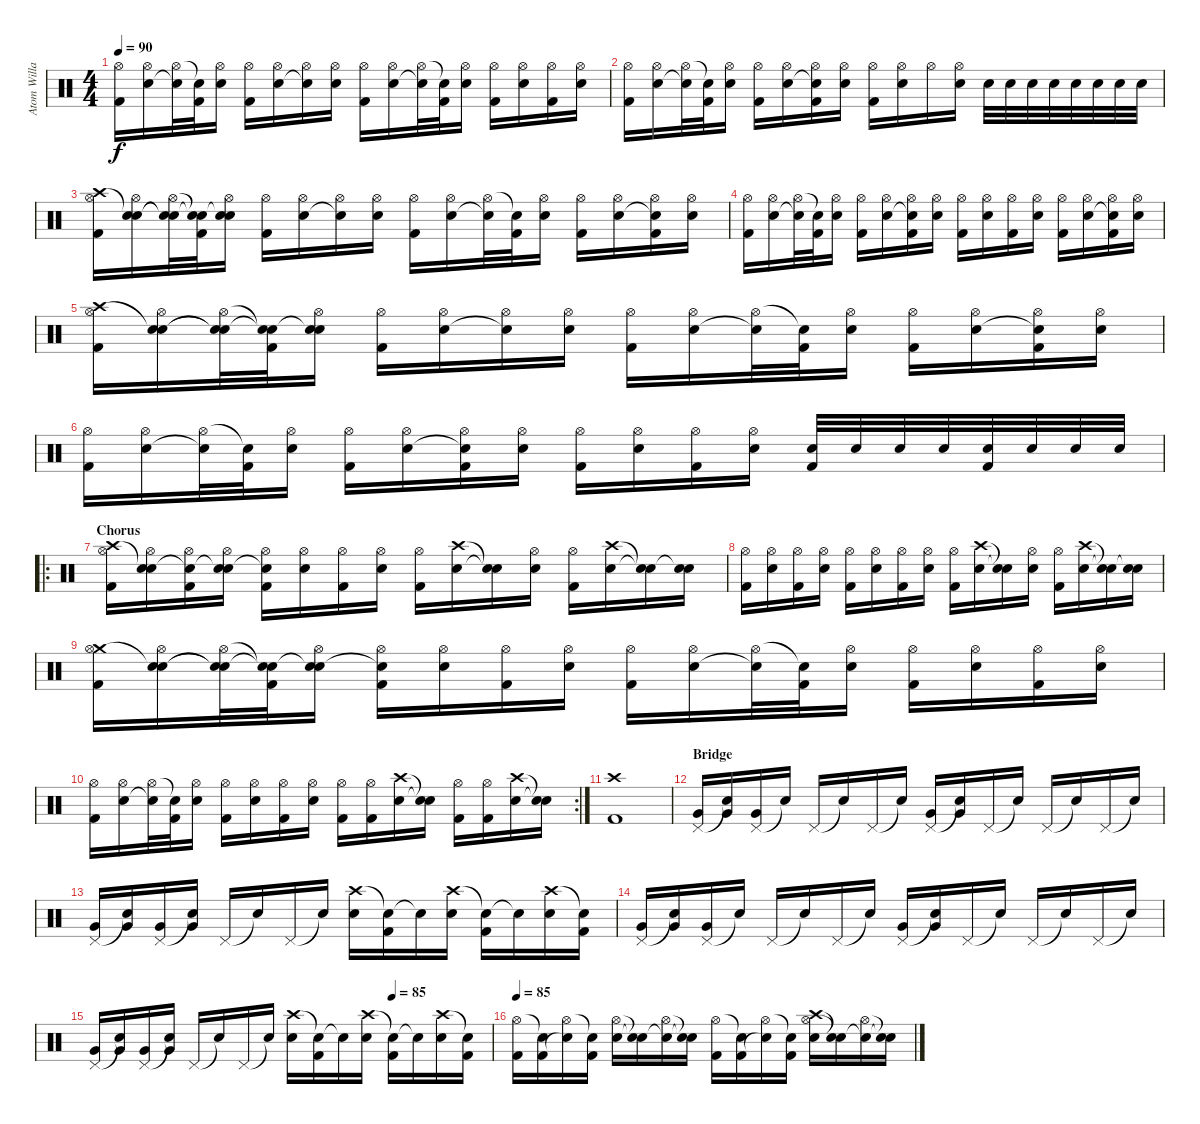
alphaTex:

\track ("Atom Willard (Drums)" "Atom Willa") {instrument percussion}
\staff {score}
\articulation defaults
\ts (4 4)
\tempo 90
\clef neutral
\ks c
("Hi-Hat (open)" "Kick (hit) 2").16{dy f} ("Hi-Hat (open)" "Electric Snare (hit)").16 ("Hi-Hat (open)" "Snare (hit)"{t}).32 ("Snare (hit)"{t} "Kick (hit) 2").32 ("Hi-Hat (open)" "Electric Snare (hit)").16 ("Hi-Hat (open)" "Kick (hit) 2").16 ("Hi-Hat (open)" "Electric Snare (hit)").16 ("Hi-Hat (open)" "Snare (hit)"{t}).16 ("Hi-Hat (open)" "Electric Snare (hit)").16 ("Hi-Hat (open)" "Kick (hit) 2").16 ("Hi-Hat (open)" "Electric Snare (hit)").16 ("Hi-Hat (open)" "Snare (hit)"{t}).32 ("Snare (hit)"{t} "Kick (hit) 2").32 ("Hi-Hat (open)" "Electric Snare (hit)").16 ("Hi-Hat (open)" "Kick (hit) 2").16 ("Hi-Hat (open)" "Electric Snare (hit)").16 ("Hi-Hat (open)" "Kick (hit) 2").16 ("Hi-Hat (open)" "Electric Snare (hit)").16 |
("Hi-Hat (open)" "Kick (hit) 2").16 ("Hi-Hat (open)" "Electric Snare (hit)").16 ("Hi-Hat (open)" "Snare (hit)"{t}).32 ("Snare (hit)"{t} "Kick (hit) 2").32 ("Hi-Hat (open)" "Electric Snare (hit)").16 ("Hi-Hat (open)" "Kick (hit) 2").16 ("Hi-Hat (open)" "Electric Snare (hit)").16 ("Hi-Hat (open)" "Snare (hit)"{t} "Kick (hit) 2").16 ("Hi-Hat (open)" "Electric Snare (hit)").16 ("Hi-Hat (open)" "Kick (hit) 2").16 ("Hi-Hat (open)" "Electric Snare (hit)").16 "Hi-Hat (open)".16 ("Hi-Hat (open)" "Electric Snare (hit)").16 "Electric Snare (hit)".32 "Electric Snare (hit)".32 "Electric Snare (hit)".32 "Electric Snare (hit)".32 "Electric Snare (hit)".32 "Electric Snare (hit)".32 "Electric Snare (hit)".32 "Electric Snare (hit)".32 |
("Crash high (hit)" "Hi-Hat (open)" "Kick (hit) 2").16 ("Snare (hit)"{t} "Hi-Hat (open)" "Electric Snare (hit)").16 ("Snare (hit)"{t} "Hi-Hat (open)" "Snare (hit)"{t}).32 ("Snare (hit)"{t} "Snare (hit)"{t} "Kick (hit) 2").32 ("Snare (hit)"{t} "Hi-Hat (open)" "Electric Snare (hit)").16 ("Hi-Hat (open)" "Kick (hit) 2").16 ("Hi-Hat (open)" "Electric Snare (hit)").16 ("Hi-Hat (open)" "Snare (hit)"{t}).16 ("Hi-Hat (open)" "Electric Snare (hit)").16 ("Hi-Hat (open)" "Kick (hit) 2").16 ("Hi-Hat (open)" "Electric Snare (hit)").16 ("Hi-Hat (open)" "Snare (hit)"{t}).32 ("Snare (hit)"{t} "Kick (hit) 2").32 ("Hi-Hat (open)" "Electric Snare (hit)").16 ("Hi-Hat (open)" "Kick (hit) 2").16 ("Hi-Hat (open)" "Electric Snare (hit)").16 ("Hi-Hat (open)" "Snare (hit)"{t} "Kick (hit) 2").16 ("Hi-Hat (open)" "Electric Snare (hit)").16 |
("Hi-Hat (open)" "Kick (hit) 2").16 ("Hi-Hat (open)" "Electric Snare (hit)").16 ("Hi-Hat (open)" "Snare (hit)"{t}).32 ("Snare (hit)"{t} "Kick (hit) 2").32 ("Hi-Hat (open)" "Electric Snare (hit)").16 ("Hi-Hat (open)" "Kick (hit) 2").16 ("Hi-Hat (open)" "Electric Snare (hit)").16 ("Hi-Hat (open)" "Snare (hit)"{t} "Kick (hit) 2").16 ("Hi-Hat (open)" "Electric Snare (hit)").16 ("Hi-Hat (open)" "Kick (hit) 2").16 ("Hi-Hat (open)" "Electric Snare (hit)").16 ("Hi-Hat (open)" "Kick (hit) 2").16 ("Hi-Hat (open)" "Electric Snare (hit)").16 ("Hi-Hat (open)" "Kick (hit) 2").16 ("Hi-Hat (open)" "Electric Snare (hit)").16 ("Hi-Hat (open)" "Snare (hit)"{t} "Kick (hit) 2").16 ("Hi-Hat (open)" "Electric Snare (hit)").16 |
("Crash high (hit)" "Hi-Hat (open)" "Kick (hit) 2").16 ("Snare (hit)"{t} "Hi-Hat (open)" "Electric Snare (hit)").16 ("Snare (hit)"{t} "Hi-Hat (open)" "Snare (hit)"{t}).32 ("Snare (hit)"{t} "Snare (hit)"{t} "Kick (hit) 2").32 ("Snare (hit)"{t} "Hi-Hat (open)" "Electric Snare (hit)").16 ("Hi-Hat (open)" "Kick (hit) 2").16 ("Hi-Hat (open)" "Electric Snare (hit)").16 ("Hi-Hat (open)" "Snare (hit)"{t}).16 ("Hi-Hat (open)" "Electric Snare (hit)").16 ("Hi-Hat (open)" "Kick (hit) 2").16 ("Hi-Hat (open)" "Electric Snare (hit)").16 ("Hi-Hat (open)" "Snare (hit)"{t}).32 ("Snare (hit)"{t} "Kick (hit) 2").32 ("Hi-Hat (open)" "Electric Snare (hit)").16 ("Hi-Hat (open)" "Kick (hit) 2").16 ("Hi-Hat (open)" "Electric Snare (hit)").16 ("Hi-Hat (open)" "Snare (hit)"{t} "Kick (hit) 2").16 ("Hi-Hat (open)" "Electric Snare (hit)").16 |
("Hi-Hat (open)" "Kick (hit) 2").16 ("Hi-Hat (open)" "Electric Snare (hit)").16 ("Hi-Hat (open)" "Snare (hit)"{t}).32 ("Snare (hit)"{t} "Kick (hit) 2").32 ("Hi-Hat (open)" "Electric Snare (hit)").16 ("Hi-Hat (open)" "Kick (hit) 2").16 ("Hi-Hat (open)" "Electric Snare (hit)").16 ("Hi-Hat (open)" "Snare (hit)"{t} "Kick (hit) 2").16 ("Hi-Hat (open)" "Electric Snare (hit)").16 ("Hi-Hat (open)" "Kick (hit) 2").16 ("Hi-Hat (open)" "Electric Snare (hit)").16 ("Hi-Hat (open)" "Kick (hit) 2").16 ("Hi-Hat (open)" "Electric Snare (hit)").16 ("Electric Snare (hit)" "Kick (hit) 2").32 "Electric Snare (hit)".32 "Electric Snare (hit)".32 "Electric Snare (hit)".32 ("Electric Snare (hit)" "Kick (hit) 2").32 "Electric Snare (hit)".32 "Electric Snare (hit)".32 "Electric Snare (hit)".32 |
\ro
\section ("" "Chorus")
("Crash high (hit)" "Hi-Hat (open)" "Kick (hit) 2").16 ("Snare (hit)"{t} "Hi-Hat (open)" "Electric Snare (hit)").16 ("Snare (hit)"{t} "Hi-Hat (open)" "Kick (hit) 2").16 ("Snare (hit)"{t} "Hi-Hat (open)" "Electric Snare (hit)").16 ("Snare (hit)"{t} "Hi-Hat (open)" "Kick (hit) 2").16 ("Hi-Hat (open)" "Electric Snare (hit)").16 ("Hi-Hat (open)" "Kick (hit) 2").16 ("Hi-Hat (open)" "Electric Snare (hit)").16 ("Hi-Hat (open)" "Kick (hit) 2").16 ("Crash high (hit)" "Electric Snare (hit)").16 ("Snare (hit)"{t} "Snare (hit)"{t}).16 ("Hi-Hat (open)" "Electric Snare (hit)").16 ("Hi-Hat (open)" "Kick (hit) 2").16 ("Crash high (hit)" "Electric Snare (hit)").16 ("Snare (hit)"{t} "Snare (hit)"{t}).16 ("Snare (hit)"{t} "Electric Snare (hit)").16 |
("Hi-Hat (open)" "Kick (hit) 2").16 ("Hi-Hat (open)" "Electric Snare (hit)").16 ("Hi-Hat (open)" "Kick (hit) 2").16 ("Hi-Hat (open)" "Electric Snare (hit)").16 ("Hi-Hat (open)" "Kick (hit) 2").16 ("Hi-Hat (open)" "Electric Snare (hit)").16 ("Hi-Hat (open)" "Kick (hit) 2").16 ("Hi-Hat (open)" "Electric Snare (hit)").16 ("Hi-Hat (open)" "Kick (hit) 2").16 ("Crash high (hit)" "Electric Snare (hit)").16 ("Snare (hit)"{t} "Snare (hit)"{t}).16 ("Hi-Hat (open)" "Electric Snare (hit)").16 ("Hi-Hat (open)" "Kick (hit) 2").16 ("Crash high (hit)" "Electric Snare (hit)").16 ("Snare (hit)"{t} "Snare (hit)"{t}).16 ("Snare (hit)"{t} "Electric Snare (hit)").16 |
("Crash medium (hit)" "Hi-Hat (open)" "Kick (hit) 2").16 ("Snare (hit)"{t} "Hi-Hat (open)" "Electric Snare (hit)").16 ("Snare (hit)"{t} "Hi-Hat (open)" "Snare (hit)"{t}).32 ("Snare (hit)"{t} "Snare (hit)"{t} "Kick (hit) 2").32 ("Snare (hit)"{t} "Hi-Hat (open)" "Electric Snare (hit)").16 ("Snare (hit)"{t} "Hi-Hat (open)" "Kick (hit) 2").16 ("Hi-Hat (open)" "Electric Snare (hit)").16 ("Hi-Hat (open)" "Kick (hit) 2").16 ("Hi-Hat (open)" "Electric Snare (hit)").16 ("Hi-Hat (open)" "Kick (hit) 2").16 ("Hi-Hat (open)" "Electric Snare (hit)").16 ("Hi-Hat (open)" "Snare (hit)"{t}).32 ("Snare (hit)"{t} "Kick (hit) 2").32 ("Hi-Hat (open)" "Electric Snare (hit)").16 ("Hi-Hat (open)" "Kick (hit) 2").16 ("Hi-Hat (open)" "Electric Snare (hit)").16 ("Hi-Hat (open)" "Kick (hit) 2").16 ("Hi-Hat (open)" "Electric Snare (hit)").16 |
\rc 2
("Hi-Hat (open)" "Kick (hit) 2").16 ("Hi-Hat (open)" "Electric Snare (hit)").16 ("Hi-Hat (open)" "Snare (hit)"{t}).32 ("Snare (hit)"{t} "Kick (hit) 2").32 ("Hi-Hat (open)" "Electric Snare (hit)").16 ("Hi-Hat (open)" "Kick (hit) 2").16 ("Hi-Hat (open)" "Electric Snare (hit)").16 ("Hi-Hat (open)" "Kick (hit) 2").16 ("Hi-Hat (open)" "Electric Snare (hit)").16 ("Hi-Hat (open)" "Kick (hit) 2").16 ("Hi-Hat (open)" "Kick (hit) 2").16 ("Crash high (hit)" "Electric Snare (hit)").16 ("Snare (hit)"{t} "Snare (hit)"{t}).16 ("Hi-Hat (open)" "Kick (hit) 2").16 ("Hi-Hat (open)" "Kick (hit) 2").16 ("Crash high (hit)" "Electric Snare (hit)").16 ("Snare (hit)"{t} "Snare (hit)"{t}).16 |
("Crash high (hit)" "Kick (hit) 2").1 |
\section ("" "Bridge")
("Pedal Hi-Hat (hit)" "Very Low Tom (hit)").16 ("Snare (hit)"{t} "Very Low Tom (hit)").16 ("Pedal Hi-Hat (hit)" "Very Low Tom (hit)").16 "Snare (hit)"{t}.16 "Pedal Hi-Hat (hit)".16 "Snare (hit)"{t}.16 "Pedal Hi-Hat (hit)".16 "Snare (hit)"{t}.16 ("Pedal Hi-Hat (hit)" "Very Low Tom (hit)").16 ("Snare (hit)"{t} "Very Low Tom (hit)").16 "Pedal Hi-Hat (hit)".16 "Snare (hit)"{t}.16 "Pedal Hi-Hat (hit)".16 "Snare (hit)"{t}.16 "Pedal Hi-Hat (hit)".16 "Snare (hit)"{t}.16 |
("Pedal Hi-Hat (hit)" "Very Low Tom (hit)").16 ("Snare (hit)"{t} "Very Low Tom (hit)").16 ("Pedal Hi-Hat (hit)" "Very Low Tom (hit)").16 ("Snare (hit)"{t} "Very Low Tom (hit)").16 "Pedal Hi-Hat (hit)".16 "Snare (hit)"{t}.16 "Pedal Hi-Hat (hit)".16 "Snare (hit)"{t}.16 ("Crash high (hit)" "Electric Snare (hit)").16 ("Snare (hit)"{t} "Kick (hit) 2").16 "Snare (hit)"{t}.16 ("Crash high (hit)" "Electric Snare (hit)").16 ("Snare (hit)"{t} "Kick (hit) 2").16 "Snare (hit)"{t}.16 ("Crash high (hit)" "Electric Snare (hit)").16 ("Snare (hit)"{t} "Kick (hit) 2").16 |
("Pedal Hi-Hat (hit)" "Very Low Tom (hit)").16 ("Snare (hit)"{t} "Very Low Tom (hit)").16 ("Pedal Hi-Hat (hit)" "Very Low Tom (hit)").16 "Snare (hit)"{t}.16 "Pedal Hi-Hat (hit)".16 "Snare (hit)"{t}.16 "Pedal Hi-Hat (hit)".16 "Snare (hit)"{t}.16 ("Pedal Hi-Hat (hit)" "Very Low Tom (hit)").16 ("Snare (hit)"{t} "Very Low Tom (hit)").16 "Pedal Hi-Hat (hit)".16 "Snare (hit)"{t}.16 "Pedal Hi-Hat (hit)".16 "Snare (hit)"{t}.16 "Pedal Hi-Hat (hit)".16 "Snare (hit)"{t}.16 |
\tempo (85 0.75)
("Pedal Hi-Hat (hit)" "Very Low Tom (hit)").16 ("Snare (hit)"{t} "Very Low Tom (hit)").16 ("Pedal Hi-Hat (hit)" "Very Low Tom (hit)").16 ("Snare (hit)"{t} "Very Low Tom (hit)").16 "Pedal Hi-Hat (hit)".16 "Snare (hit)"{t}.16 "Pedal Hi-Hat (hit)".16 "Snare (hit)"{t}.16 ("Crash high (hit)" "Electric Snare (hit)").16 ("Snare (hit)"{t} "Kick (hit) 2").16 "Snare (hit)"{t}.16 ("Crash high (hit)" "Electric Snare (hit)").16 ("Snare (hit)"{t} "Kick (hit) 2").16 "Snare (hit)"{t}.16 ("Crash high (hit)" "Electric Snare (hit)").16 ("Snare (hit)"{t} "Kick (hit) 2").16 |
\tempo 85
("Hi-Hat (open)" "Kick (hit) 2").16 ("Snare (hit)"{t} "Kick (hit) 2").16 ("Hi-Hat (open)" "Snare (hit)"{t}).16 ("Snare (hit)"{t} "Kick (hit) 2").16 ("Hi-Hat (open)" "Electric Snare (hit)").16 ("Snare (hit)"{t} "Snare (hit)"{t}).16 ("Hi-Hat (open)" "Snare (hit)"{t}).16 ("Snare (hit)"{t} "Snare (hit)"{t}).16 ("Hi-Hat (open)" "Kick (hit) 2").16 ("Snare (hit)"{t} "Kick (hit) 2").16 ("Hi-Hat (open)" "Snare (hit)"{t}).16 ("Snare (hit)"{t} "Kick (hit) 2").16 ("Crash high (hit)" "Hi-Hat (open)" "Electric Snare (hit)").16 ("Snare (hit)"{t} "Snare (hit)"{t}).16 ("Hi-Hat (open)" "Snare (hit)"{t}).16 ("Snare (hit)"{t} "Snare (hit)"{t}).16
